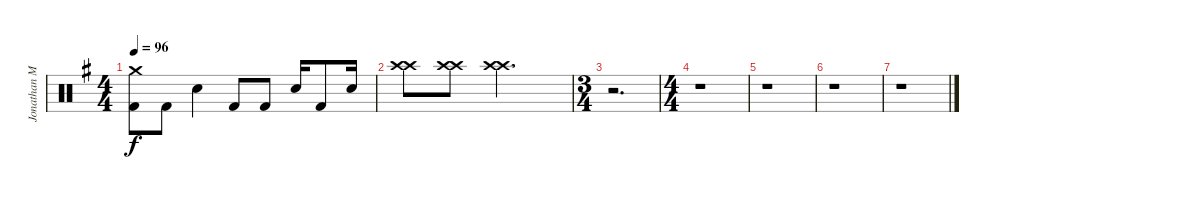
\track ("Jonathan Mover (Drums)" "Jonathan M") {instrument percussion}
\staff {score}
\articulation defaults
\ts (4 4)
\tempo 96
\clef neutral
\ks g
("Crash medium (hit)" "Kick (hit) 2").8{dy f} "Kick (hit) 2".8 "Electric Snare (hit)".4 "Kick (hit) 2".8 "Kick (hit) 2".8 "Electric Snare (hit)".16 "Kick (hit) 2".8 "Electric Snare (hit)".16 |
("Crash high (hit)" "Crash high (hit)").8 ("Crash high (hit)" "Crash high (hit)").8 ("Crash high (hit)" "Crash high (hit)").2{d} |
\ts (3 4)
r.2{d} |
\ts (4 4)
r.1 |
r.1 |
r.1 |
r.1
